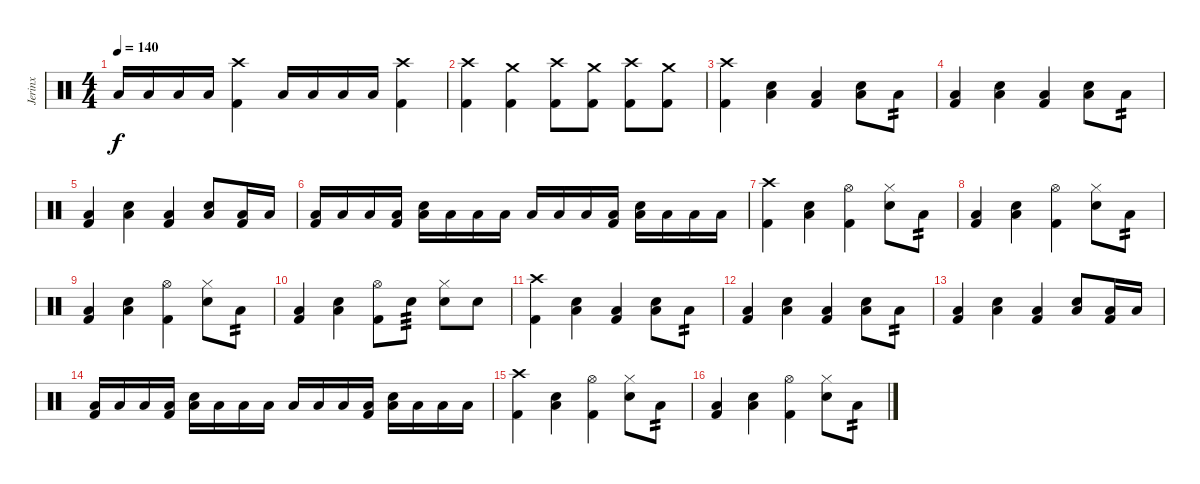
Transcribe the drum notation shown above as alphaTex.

\track ("Jerinx" "Jerinx") {instrument percussion}
\staff {score}
\articulation defaults
\ts (4 4)
\tempo 140
\clef neutral
\ks c "Low Tom (hit)".16{dy f} "Low Tom (hit)".16 "Low Floor Tom (hit)".16 "Low Floor Tom (hit)".16
("Crash high (hit)" "Kick (hit) 2").4 "Low Tom (hit)".16 "Low Tom (hit)".16 "Low Floor Tom (hit)".16 "Low Floor Tom (hit)".16 ("Crash high (hit)" "Kick (hit) 2").4 |
("Crash high (hit)" "Kick (hit) 2").4 ("Crash medium (hit)" "Kick (hit) 2").4 ("Crash high (hit)" "Kick (hit) 2").8 ("Crash medium (hit)" "Kick (hit) 2").8 ("Crash high (hit)" "Kick (hit) 2").8 ("Crash medium (hit)" "Kick (hit) 2").8 |
("Crash high (hit)" "Kick (hit) 2").4 ("Low Floor Tom (hit)" "Electric Snare (hit)").4 ("Low Floor Tom (hit)" "Kick (hit) 2").4 ("Low Floor Tom (hit)" "Electric Snare (hit)").8 "Low Floor Tom (hit)".8{tp 2} |
("Low Floor Tom (hit)" "Kick (hit) 2").4 ("Low Floor Tom (hit)" "Electric Snare (hit)").4 ("Low Floor Tom (hit)" "Kick (hit) 2").4 ("Low Floor Tom (hit)" "Electric Snare (hit)").8 "Low Floor Tom (hit)".8{tp 2} |
("Low Floor Tom (hit)" "Kick (hit) 2").4 ("Low Floor Tom (hit)" "Electric Snare (hit)").4 ("Low Floor Tom (hit)" "Kick (hit) 2").4 ("Low Floor Tom (hit)" "Electric Snare (hit)").8 ("Low Tom (hit)" "Kick (hit) 2").16 "Low Tom (hit)".16 |
("Low Tom (hit)" "Kick (hit) 2").16 "Low Tom (hit)".16 "Low Tom (hit)".16 ("Low Tom (hit)" "Kick (hit) 2").16 ("Low Tom (hit)" "Electric Snare (hit)").16 "Low Floor Tom (hit)".16 "Low Floor Tom (hit)".16 "Low Floor Tom (hit)".16 "Low Floor Tom (hit)".16 "Low Floor Tom (hit)".16 "Low Floor Tom (hit)".16 ("Low Floor Tom (hit)" "Kick (hit) 2").16 ("Low Floor Tom (hit)" "Electric Snare (hit)").16 "Low Floor Tom (hit)".16 "Low Floor Tom (hit)".16 "Low Floor Tom (hit)".16 |
("Crash high (hit)" "Kick (hit) 2").4 ("Low Floor Tom (hit)" "Electric Snare (hit)").4 ("Hi-Hat (open)" "Kick (hit) 2").4 ("Hi-Hat (closed)" "Electric Snare (hit)").8 "Low Floor Tom (hit)".8{tp 2} |
("Low Floor Tom (hit)" "Kick (hit) 2").4 ("Low Floor Tom (hit)" "Electric Snare (hit)").4 ("Hi-Hat (open)" "Kick (hit) 2").4 ("Hi-Hat (closed)" "Electric Snare (hit)").8 "Low Floor Tom (hit)".8{tp 2} |
("Low Floor Tom (hit)" "Kick (hit) 2").4 ("Low Floor Tom (hit)" "Electric Snare (hit)").4 ("Hi-Hat (open)" "Kick (hit) 2").4 ("Hi-Hat (closed)" "Electric Snare (hit)").8 "Low Floor Tom (hit)".8{tp 2} |
("Low Floor Tom (hit)" "Kick (hit) 2").4 ("Low Floor Tom (hit)" "Electric Snare (hit)").4 ("Hi-Hat (open)" "Kick (hit) 2").8 "Electric Snare (hit)".8{tp 3} ("Hi-Hat (closed)" "Electric Snare (hit)").8 "Electric Snare (hit)".8 |
("Crash high (hit)" "Kick (hit) 2").4 ("Low Floor Tom (hit)" "Electric Snare (hit)").4 ("Low Floor Tom (hit)" "Kick (hit) 2").4 ("Low Floor Tom (hit)" "Electric Snare (hit)").8 "Low Floor Tom (hit)".8{tp 2} |
("Low Floor Tom (hit)" "Kick (hit) 2").4 ("Low Floor Tom (hit)" "Electric Snare (hit)").4 ("Low Floor Tom (hit)" "Kick (hit) 2").4 ("Low Floor Tom (hit)" "Electric Snare (hit)").8 "Low Floor Tom (hit)".8{tp 2} |
("Low Floor Tom (hit)" "Kick (hit) 2").4 ("Low Floor Tom (hit)" "Electric Snare (hit)").4 ("Low Floor Tom (hit)" "Kick (hit) 2").4 ("Low Floor Tom (hit)" "Electric Snare (hit)").8 ("Low Tom (hit)" "Kick (hit) 2").16 "Low Tom (hit)".16 |
("Low Tom (hit)" "Kick (hit) 2").16 "Low Tom (hit)".16 "Low Tom (hit)".16 ("Low Tom (hit)" "Kick (hit) 2").16 ("Low Tom (hit)" "Electric Snare (hit)").16 "Low Floor Tom (hit)".16 "Low Floor Tom (hit)".16 "Low Floor Tom (hit)".16 "Low Floor Tom (hit)".16 "Low Floor Tom (hit)".16 "Low Floor Tom (hit)".16 ("Low Floor Tom (hit)" "Kick (hit) 2").16 ("Low Floor Tom (hit)" "Electric Snare (hit)").16 "Low Floor Tom (hit)".16 "Low Floor Tom (hit)".16 "Low Floor Tom (hit)".16 |
("Crash high (hit)" "Kick (hit) 2").4 ("Low Floor Tom (hit)" "Electric Snare (hit)").4 ("Hi-Hat (open)" "Kick (hit) 2").4 ("Hi-Hat (closed)" "Electric Snare (hit)").8 "Low Floor Tom (hit)".8{tp 2} |
("Low Floor Tom (hit)" "Kick (hit) 2").4 ("Low Floor Tom (hit)" "Electric Snare (hit)").4 ("Hi-Hat (open)" "Kick (hit) 2").4 ("Hi-Hat (closed)" "Electric Snare (hit)").8 "Low Floor Tom (hit)".8{tp 2}
